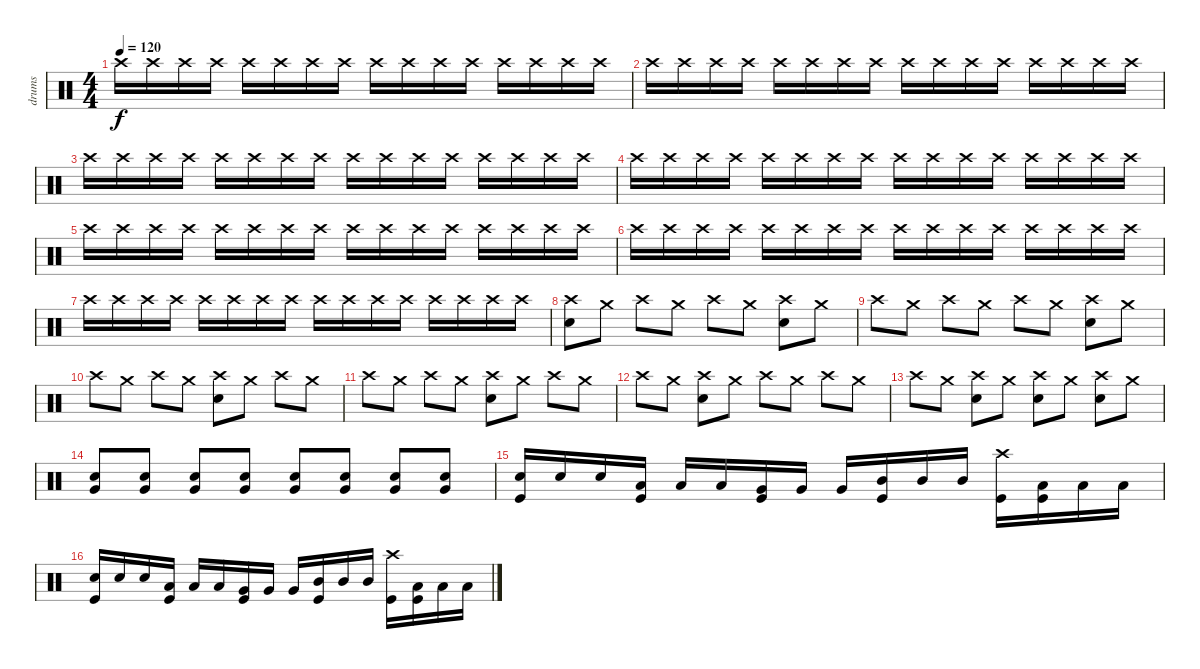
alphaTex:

\track ("drums" "drums") {instrument percussion}
\staff {score}
\articulation defaults
\ts (4 4)
\tempo 120
\clef neutral
\ks c "Crash high (hit)".16{dy f volume 0} "Crash high (hit)".16 "Crash high (hit)".16 "Crash high (hit)".16 "Crash high (hit)".16{volume 10} "Crash high (hit)".16 "Crash high (hit)".16 "Crash high (hit)".16 "Crash high (hit)".16 "Crash high (hit)".16 "Crash high (hit)".16 "Crash high (hit)".16 "Crash high (hit)".16{volume 2} "Crash high (hit)".16 "Crash high (hit)".16 "Crash high (hit)".16
|
"Crash high (hit)".16{volume 0} "Crash high (hit)".16 "Crash high (hit)".16 "Crash high (hit)".16 "Crash high (hit)".16{volume 10} "Crash high (hit)".16 "Crash high (hit)".16 "Crash high (hit)".16 "Crash high (hit)".16 "Crash high (hit)".16 "Crash high (hit)".16 "Crash high (hit)".16 "Crash high (hit)".16{volume 2} "Crash high (hit)".16 "Crash high (hit)".16 "Crash high (hit)".16 |
"Crash high (hit)".16{volume 0} "Crash high (hit)".16 "Crash high (hit)".16 "Crash high (hit)".16 "Crash high (hit)".16{volume 10} "Crash high (hit)".16 "Crash high (hit)".16 "Crash high (hit)".16 "Crash high (hit)".16 "Crash high (hit)".16 "Crash high (hit)".16 "Crash high (hit)".16 "Crash high (hit)".16{volume 2} "Crash high (hit)".16 "Crash high (hit)".16 "Crash high (hit)".16 |
"Crash high (hit)".16{volume 0} "Crash high (hit)".16 "Crash high (hit)".16 "Crash high (hit)".16 "Crash high (hit)".16{volume 10} "Crash high (hit)".16 "Crash high (hit)".16 "Crash high (hit)".16 "Crash high (hit)".16 "Crash high (hit)".16 "Crash high (hit)".16 "Crash high (hit)".16 "Crash high (hit)".16{volume 2} "Crash high (hit)".16 "Crash high (hit)".16 "Crash high (hit)".16 |
"Crash high (hit)".16{volume 0} "Crash high (hit)".16 "Crash high (hit)".16 "Crash high (hit)".16 "Crash high (hit)".16{volume 10} "Crash high (hit)".16 "Crash high (hit)".16 "Crash high (hit)".16 "Crash high (hit)".16 "Crash high (hit)".16 "Crash high (hit)".16 "Crash high (hit)".16 "Crash high (hit)".16{volume 2} "Crash high (hit)".16 "Crash high (hit)".16 "Crash high (hit)".16 |
"Crash high (hit)".16{volume 0} "Crash high (hit)".16 "Crash high (hit)".16 "Crash high (hit)".16 "Crash high (hit)".16{volume 10} "Crash high (hit)".16 "Crash high (hit)".16 "Crash high (hit)".16 "Crash high (hit)".16 "Crash high (hit)".16 "Crash high (hit)".16 "Crash high (hit)".16 "Crash high (hit)".16{volume 2} "Crash high (hit)".16 "Crash high (hit)".16 "Crash high (hit)".16 |
"Crash high (hit)".16{volume 0} "Crash high (hit)".16 "Crash high (hit)".16 "Crash high (hit)".16 "Crash high (hit)".16{volume 10} "Crash high (hit)".16 "Crash high (hit)".16 "Crash high (hit)".16 "Crash high (hit)".16 "Crash high (hit)".16 "Crash high (hit)".16 "Crash high (hit)".16 "Crash high (hit)".16{volume 16} "Crash high (hit)".16 "Crash high (hit)".16 "Crash high (hit)".16 |
("Crash high (hit)" "Electric Snare (hit)").8{volume 16} "Crash medium (hit)".8 "Crash high (hit)".8 "Crash medium (hit)".8 "Crash high (hit)".8 "Crash medium (hit)".8 ("Crash high (hit)" "Electric Snare (hit)").8 "Crash medium (hit)".8 |
"Crash high (hit)".8 "Crash medium (hit)".8 "Crash high (hit)".8 "Crash medium (hit)".8 "Crash high (hit)".8 "Crash medium (hit)".8 ("Crash high (hit)" "Electric Snare (hit)").8 "Crash medium (hit)".8 |
"Crash high (hit)".8 "Crash medium (hit)".8 "Crash high (hit)".8 "Crash medium (hit)".8 ("Crash high (hit)" "Electric Snare (hit)").8 "Crash medium (hit)".8 "Crash high (hit)".8 "Crash medium (hit)".8 |
"Crash high (hit)".8 "Crash medium (hit)".8 "Crash high (hit)".8 "Crash medium (hit)".8 ("Crash high (hit)" "Electric Snare (hit)").8 "Crash medium (hit)".8 "Crash high (hit)".8 "Crash medium (hit)".8 |
"Crash high (hit)".8 "Crash medium (hit)".8 ("Crash high (hit)" "Electric Snare (hit)").8 "Crash medium (hit)".8 "Crash high (hit)".8 "Crash medium (hit)".8 "Crash high (hit)".8 "Crash medium (hit)".8 |
"Crash high (hit)".8 "Crash medium (hit)".8 ("Crash high (hit)" "Electric Snare (hit)").8 "Crash medium (hit)".8 ("Crash high (hit)" "Electric Snare (hit)").8 "Crash medium (hit)".8 ("Crash high (hit)" "Electric Snare (hit)").8 "Crash medium (hit)".8 |
("Very Low Tom (hit)" "Electric Snare (hit)").8 ("Very Low Tom (hit)" "Electric Snare (hit)").8 ("Very Low Tom (hit)" "Electric Snare (hit)").8 ("Very Low Tom (hit)" "Electric Snare (hit)").8 ("Very Low Tom (hit)" "Electric Snare (hit)").8 ("Very Low Tom (hit)" "Electric Snare (hit)").8 ("Very Low Tom (hit)" "Electric Snare (hit)").8 ("Very Low Tom (hit)" "Electric Snare (hit)").8 |
("Electric Snare (hit)" "Kick (hit)").16 "Electric Snare (hit)".16 "Electric Snare (hit)".16 ("Low Tom (hit)" "Kick (hit)").16 "Low Tom (hit)".16 "Low Tom (hit)".16 ("Very Low Tom (hit)" "Kick (hit)").16 "Very Low Tom (hit)".16 "Very Low Tom (hit)".16 ("Mid Tom (hit)" "Kick (hit)").16 "Mid Tom (hit)".16 "Mid Tom (hit)".16 ("Crash high (hit)" "Kick (hit)").16 ("Low Tom (hit)" "Kick (hit)").16 "Low Tom (hit)".16 "Low Tom (hit)".16 |
("Electric Snare (hit)" "Kick (hit)").16 "Electric Snare (hit)".16 "Electric Snare (hit)".16 ("Low Tom (hit)" "Kick (hit)").16 "Low Tom (hit)".16 "Low Tom (hit)".16 ("Very Low Tom (hit)" "Kick (hit)").16 "Very Low Tom (hit)".16 "Very Low Tom (hit)".16 ("Mid Tom (hit)" "Kick (hit)").16 "Mid Tom (hit)".16 "Mid Tom (hit)".16 ("Crash high (hit)" "Kick (hit)").16 ("Low Tom (hit)" "Kick (hit)").16 "Low Tom (hit)".16 "Low Tom (hit)".16
